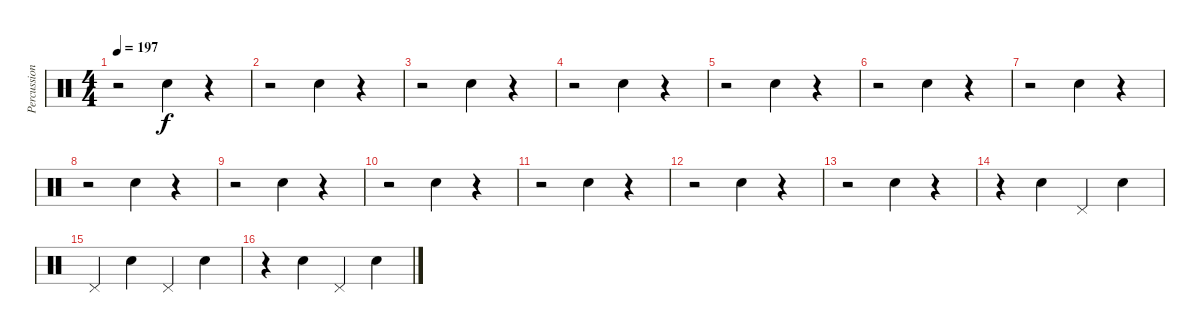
\track ("Percussion" "Percussion") {instrument percussion}
\staff {score}
\articulation defaults
\ts (4 4)
\tempo 197
\clef neutral
\ks c
r.2{dy f} "Electric Snare (hit)".4 r.4 |
r.2 "Electric Snare (hit)".4 r.4 |
r.2 "Electric Snare (hit)".4 r.4 |
r.2 "Electric Snare (hit)".4 r.4 |
r.2 "Electric Snare (hit)".4 r.4 |
r.2 "Electric Snare (hit)".4 r.4 |
r.2 "Electric Snare (hit)".4 r.4 |
r.2 "Electric Snare (hit)".4 r.4 |
r.2 "Electric Snare (hit)".4 r.4 |
r.2 "Electric Snare (hit)".4 r.4 |
r.2 "Electric Snare (hit)".4 r.4 |
r.2 "Electric Snare (hit)".4 r.4 |
r.2 "Electric Snare (hit)".4 r.4 |
r.4 "Electric Snare (hit)".4 "Pedal Hi-Hat (hit)".4 "Electric Snare (hit)".4 |
"Pedal Hi-Hat (hit)".4 "Electric Snare (hit)".4 "Pedal Hi-Hat (hit)".4 "Electric Snare (hit)".4 |
r.4 "Electric Snare (hit)".4 "Pedal Hi-Hat (hit)".4 "Electric Snare (hit)".4
